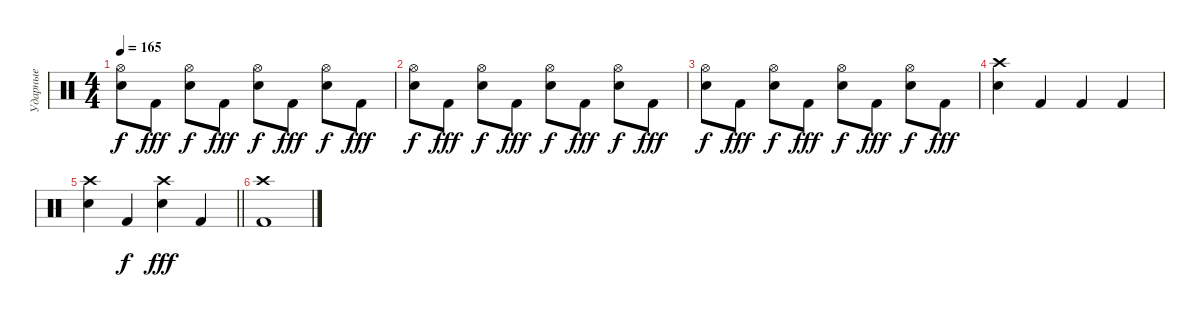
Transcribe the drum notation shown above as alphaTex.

\track ("Ударные" "Ударные") {instrument percussion}
\staff {score}
\articulation defaults
\ts (4 4)
\tempo 165
\clef neutral
\ks c
("Snare (hit) 2" "Hi-Hat (open)").8{dy f} "Kick (hit) 2".8{dy fff} ("Snare (hit) 2" "Hi-Hat (open)").8{dy f} "Kick (hit) 2".8{dy fff} ("Snare (hit) 2" "Hi-Hat (open)").8{dy f} "Kick (hit) 2".8{dy fff} ("Snare (hit) 2" "Hi-Hat (open)").8{dy f} "Kick (hit) 2".8{dy fff} |
("Snare (hit) 2" "Hi-Hat (open)").8{dy f} "Kick (hit) 2".8{dy fff} ("Snare (hit) 2" "Hi-Hat (open)").8{dy f} "Kick (hit) 2".8{dy fff} ("Snare (hit) 2" "Hi-Hat (open)").8{dy f} "Kick (hit) 2".8{dy fff} ("Snare (hit) 2" "Hi-Hat (open)").8{dy f} "Kick (hit) 2".8{dy fff} |
("Snare (hit) 2" "Hi-Hat (open)").8{dy f} "Kick (hit) 2".8{dy fff} ("Snare (hit) 2" "Hi-Hat (open)").8{dy f} "Kick (hit) 2".8{dy fff} ("Snare (hit) 2" "Hi-Hat (open)").8{dy f} "Kick (hit) 2".8{dy fff} ("Snare (hit) 2" "Hi-Hat (open)").8{dy f} "Kick (hit) 2".8{dy fff} |
("Snare (hit) 2" "Crash high (hit)").4 "Kick (hit) 2".4 "Kick (hit) 2".4 "Kick (hit) 2".4 |
\barLineRight lightlight
("Snare (hit) 2" "Crash high (hit)").4 "Kick (hit) 2".4{dy f} ("Snare (hit) 2" "Crash high (hit)").4{dy fff} "Kick (hit) 2".4 |
("Kick (hit) 2" "Crash high (hit)").1
